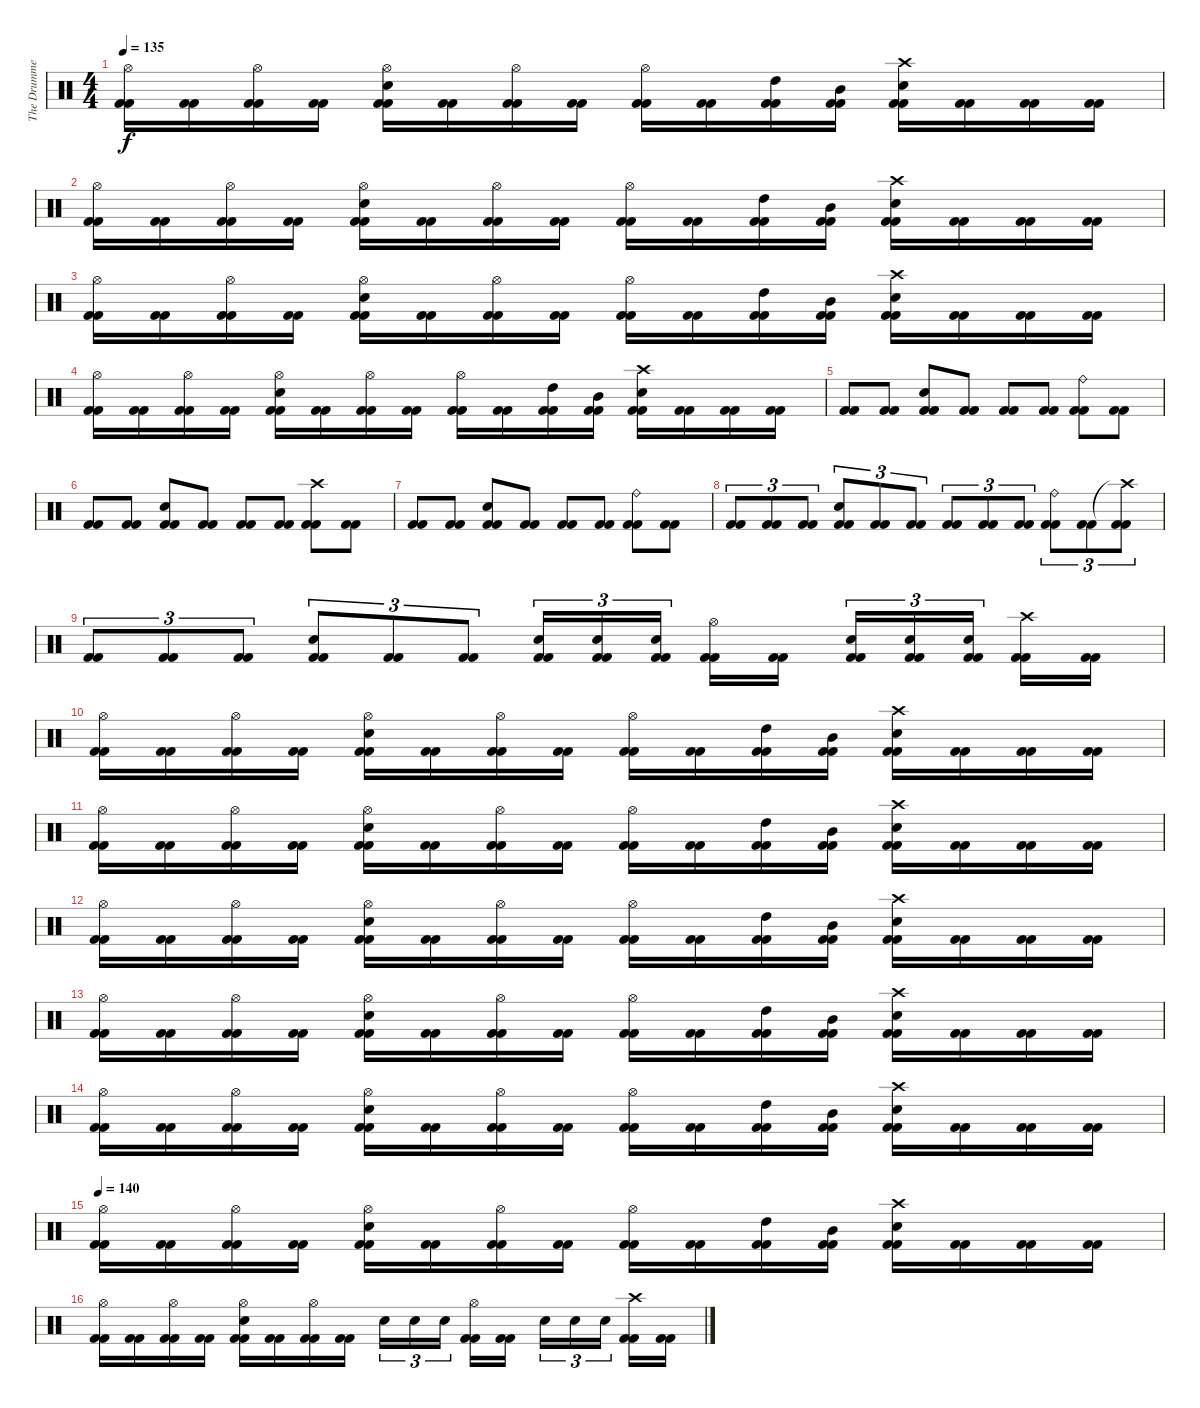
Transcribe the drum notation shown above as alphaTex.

\track ("The Drummer" "The Drumme") {instrument percussion}
\staff {score}
\articulation defaults
\ts (4 4)
\tempo 135
\clef neutral
\ks c
("Hi-Hat (open)" "Kick (hit) 2" "Kick (hit) 2").16{dy f} ("Kick (hit) 2" "Kick (hit) 2").16 ("Hi-Hat (open)" "Kick (hit) 2" "Kick (hit) 2").16 ("Kick (hit) 2" "Kick (hit) 2").16 ("Hi-Hat (open)" "Electric Snare (hit)" "Kick (hit) 2" "Kick (hit) 2").16 ("Kick (hit) 2" "Kick (hit) 2").16 ("Hi-Hat (open)" "Kick (hit) 2" "Kick (hit) 2").16 ("Kick (hit) 2" "Kick (hit) 2").16 ("Hi-Hat (open)" "Kick (hit) 2" "Kick (hit) 2").16 ("Kick (hit) 2" "Kick (hit) 2").16 ("High Tom (hit)" "Kick (hit) 2" "Kick (hit) 2").16 ("Mid Tom (hit)" "Kick (hit) 2" "Kick (hit) 2").16 ("Crash high (hit)" "Electric Snare (hit)" "Kick (hit) 2" "Kick (hit) 2").16 ("Kick (hit) 2" "Kick (hit) 2").16 ("Kick (hit) 2" "Kick (hit) 2").16 ("Kick (hit) 2" "Kick (hit) 2").16 |
("Hi-Hat (open)" "Kick (hit) 2" "Kick (hit) 2").16 ("Kick (hit) 2" "Kick (hit) 2").16 ("Hi-Hat (open)" "Kick (hit) 2" "Kick (hit) 2").16 ("Kick (hit) 2" "Kick (hit) 2").16 ("Hi-Hat (open)" "Electric Snare (hit)" "Kick (hit) 2" "Kick (hit) 2").16 ("Kick (hit) 2" "Kick (hit) 2").16 ("Hi-Hat (open)" "Kick (hit) 2" "Kick (hit) 2").16 ("Kick (hit) 2" "Kick (hit) 2").16 ("Hi-Hat (open)" "Kick (hit) 2" "Kick (hit) 2").16 ("Kick (hit) 2" "Kick (hit) 2").16 ("High Tom (hit)" "Kick (hit) 2" "Kick (hit) 2").16 ("Mid Tom (hit)" "Kick (hit) 2" "Kick (hit) 2").16 ("Crash high (hit)" "Electric Snare (hit)" "Kick (hit) 2" "Kick (hit) 2").16 ("Kick (hit) 2" "Kick (hit) 2").16 ("Kick (hit) 2" "Kick (hit) 2").16 ("Kick (hit) 2" "Kick (hit) 2").16 |
("Hi-Hat (open)" "Kick (hit) 2" "Kick (hit) 2").16 ("Kick (hit) 2" "Kick (hit) 2").16 ("Hi-Hat (open)" "Kick (hit) 2" "Kick (hit) 2").16 ("Kick (hit) 2" "Kick (hit) 2").16 ("Hi-Hat (open)" "Electric Snare (hit)" "Kick (hit) 2" "Kick (hit) 2").16 ("Kick (hit) 2" "Kick (hit) 2").16 ("Hi-Hat (open)" "Kick (hit) 2" "Kick (hit) 2").16 ("Kick (hit) 2" "Kick (hit) 2").16 ("Hi-Hat (open)" "Kick (hit) 2" "Kick (hit) 2").16 ("Kick (hit) 2" "Kick (hit) 2").16 ("High Tom (hit)" "Kick (hit) 2" "Kick (hit) 2").16 ("Mid Tom (hit)" "Kick (hit) 2" "Kick (hit) 2").16 ("Crash high (hit)" "Electric Snare (hit)" "Kick (hit) 2" "Kick (hit) 2").16 ("Kick (hit) 2" "Kick (hit) 2").16 ("Kick (hit) 2" "Kick (hit) 2").16 ("Kick (hit) 2" "Kick (hit) 2").16 |
("Hi-Hat (open)" "Kick (hit) 2" "Kick (hit) 2").16 ("Kick (hit) 2" "Kick (hit) 2").16 ("Hi-Hat (open)" "Kick (hit) 2" "Kick (hit) 2").16 ("Kick (hit) 2" "Kick (hit) 2").16 ("Hi-Hat (open)" "Electric Snare (hit)" "Kick (hit) 2" "Kick (hit) 2").16 ("Kick (hit) 2" "Kick (hit) 2").16 ("Hi-Hat (open)" "Kick (hit) 2" "Kick (hit) 2").16 ("Kick (hit) 2" "Kick (hit) 2").16 ("Hi-Hat (open)" "Kick (hit) 2" "Kick (hit) 2").16 ("Kick (hit) 2" "Kick (hit) 2").16 ("High Tom (hit)" "Kick (hit) 2" "Kick (hit) 2").16 ("Mid Tom (hit)" "Kick (hit) 2" "Kick (hit) 2").16 ("Crash high (hit)" "Electric Snare (hit)" "Kick (hit) 2" "Kick (hit) 2").16 ("Kick (hit) 2" "Kick (hit) 2").16 ("Kick (hit) 2" "Kick (hit) 2").16 ("Kick (hit) 2" "Kick (hit) 2").16 |
("Kick (hit) 2" "Kick (hit) 2").8 ("Kick (hit) 2" "Kick (hit) 2").8 ("Electric Snare (hit)" "Kick (hit) 2" "Kick (hit) 2").8 ("Kick (hit) 2" "Kick (hit) 2").8 ("Kick (hit) 2" "Kick (hit) 2").8 ("Kick (hit) 2" "Kick (hit) 2").8 ("Ride (bell)" "Kick (hit) 2" "Kick (hit) 2").8 ("Kick (hit) 2" "Kick (hit) 2").8 |
("Kick (hit) 2" "Kick (hit) 2").8 ("Kick (hit) 2" "Kick (hit) 2").8 ("Electric Snare (hit)" "Kick (hit) 2" "Kick (hit) 2").8 ("Kick (hit) 2" "Kick (hit) 2").8 ("Kick (hit) 2" "Kick (hit) 2").8 ("Kick (hit) 2" "Kick (hit) 2").8 ("Crash high (hit)" "Kick (hit) 2" "Kick (hit) 2").8 ("Kick (hit) 2" "Kick (hit) 2").8 |
("Kick (hit) 2" "Kick (hit) 2").8 ("Kick (hit) 2" "Kick (hit) 2").8 ("Electric Snare (hit)" "Kick (hit) 2" "Kick (hit) 2").8 ("Kick (hit) 2" "Kick (hit) 2").8 ("Kick (hit) 2" "Kick (hit) 2").8 ("Kick (hit) 2" "Kick (hit) 2").8 ("Ride (bell)" "Kick (hit) 2" "Kick (hit) 2").8 ("Kick (hit) 2" "Kick (hit) 2").8 |
("Kick (hit) 2" "Kick (hit) 2").8{tu (3 2)} ("Kick (hit) 2" "Kick (hit) 2").8{tu (3 2)} ("Kick (hit) 2" "Kick (hit) 2").8{tu (3 2)} ("Electric Snare (hit)" "Kick (hit) 2" "Kick (hit) 2").8{tu (3 2)} ("Kick (hit) 2" "Kick (hit) 2").8{tu (3 2)} ("Kick (hit) 2" "Kick (hit) 2").8{tu (3 2)} ("Kick (hit) 2" "Kick (hit) 2").8{tu (3 2)} ("Kick (hit) 2" "Kick (hit) 2").8{tu (3 2)} ("Kick (hit) 2" "Kick (hit) 2").8{tu (3 2)} ("Ride (bell)" "Kick (hit) 2" "Kick (hit) 2").8{tu (3 2)} ("Kick (hit) 2" "Kick (hit) 2").8{tu (3 2)} ("Crash high (hit)"{t} "Kick (hit) 2" "Kick (hit) 2").8{tu (3 2)} |
("Kick (hit) 2" "Kick (hit) 2").8{tu (3 2)} ("Kick (hit) 2" "Kick (hit) 2").8{tu (3 2)} ("Kick (hit) 2" "Kick (hit) 2").8{tu (3 2)} ("Electric Snare (hit)" "Kick (hit) 2" "Kick (hit) 2").8{tu (3 2)} ("Kick (hit) 2" "Kick (hit) 2").8{tu (3 2)} ("Kick (hit) 2" "Kick (hit) 2").8{tu (3 2)} ("Electric Snare (hit)" "Kick (hit) 2" "Kick (hit) 2").16{tu (3 2)} ("Electric Snare (hit)" "Kick (hit) 2" "Kick (hit) 2").16{tu (3 2)} ("Electric Snare (hit)" "Kick (hit) 2" "Kick (hit) 2").16{tu (3 2)} ("Hi-Hat (open)" "Kick (hit) 2" "Kick (hit) 2").16 ("Kick (hit) 2" "Kick (hit) 2").16 ("Electric Snare (hit)" "Kick (hit) 2" "Kick (hit) 2").16{tu (3 2)} ("Electric Snare (hit)" "Kick (hit) 2" "Kick (hit) 2").16{tu (3 2)} ("Electric Snare (hit)" "Kick (hit) 2" "Kick (hit) 2").16{tu (3 2)} ("Crash high (hit)" "Kick (hit) 2" "Kick (hit) 2").16 ("Kick (hit) 2" "Kick (hit) 2").16 |
("Hi-Hat (open)" "Kick (hit) 2" "Kick (hit) 2").16 ("Kick (hit) 2" "Kick (hit) 2").16 ("Hi-Hat (open)" "Kick (hit) 2" "Kick (hit) 2").16 ("Kick (hit) 2" "Kick (hit) 2").16 ("Hi-Hat (open)" "Electric Snare (hit)" "Kick (hit) 2" "Kick (hit) 2").16 ("Kick (hit) 2" "Kick (hit) 2").16 ("Hi-Hat (open)" "Kick (hit) 2" "Kick (hit) 2").16 ("Kick (hit) 2" "Kick (hit) 2").16 ("Hi-Hat (open)" "Kick (hit) 2" "Kick (hit) 2").16 ("Kick (hit) 2" "Kick (hit) 2").16 ("High Tom (hit)" "Kick (hit) 2" "Kick (hit) 2").16 ("Mid Tom (hit)" "Kick (hit) 2" "Kick (hit) 2").16 ("Crash high (hit)" "Electric Snare (hit)" "Kick (hit) 2" "Kick (hit) 2").16 ("Kick (hit) 2" "Kick (hit) 2").16 ("Kick (hit) 2" "Kick (hit) 2").16 ("Kick (hit) 2" "Kick (hit) 2").16 |
("Hi-Hat (open)" "Kick (hit) 2" "Kick (hit) 2").16 ("Kick (hit) 2" "Kick (hit) 2").16 ("Hi-Hat (open)" "Kick (hit) 2" "Kick (hit) 2").16 ("Kick (hit) 2" "Kick (hit) 2").16 ("Hi-Hat (open)" "Electric Snare (hit)" "Kick (hit) 2" "Kick (hit) 2").16 ("Kick (hit) 2" "Kick (hit) 2").16 ("Hi-Hat (open)" "Kick (hit) 2" "Kick (hit) 2").16 ("Kick (hit) 2" "Kick (hit) 2").16 ("Hi-Hat (open)" "Kick (hit) 2" "Kick (hit) 2").16 ("Kick (hit) 2" "Kick (hit) 2").16 ("High Tom (hit)" "Kick (hit) 2" "Kick (hit) 2").16 ("Mid Tom (hit)" "Kick (hit) 2" "Kick (hit) 2").16 ("Crash high (hit)" "Electric Snare (hit)" "Kick (hit) 2" "Kick (hit) 2").16 ("Kick (hit) 2" "Kick (hit) 2").16 ("Kick (hit) 2" "Kick (hit) 2").16 ("Kick (hit) 2" "Kick (hit) 2").16 |
("Hi-Hat (open)" "Kick (hit) 2" "Kick (hit) 2").16 ("Kick (hit) 2" "Kick (hit) 2").16 ("Hi-Hat (open)" "Kick (hit) 2" "Kick (hit) 2").16 ("Kick (hit) 2" "Kick (hit) 2").16 ("Hi-Hat (open)" "Electric Snare (hit)" "Kick (hit) 2" "Kick (hit) 2").16 ("Kick (hit) 2" "Kick (hit) 2").16 ("Hi-Hat (open)" "Kick (hit) 2" "Kick (hit) 2").16 ("Kick (hit) 2" "Kick (hit) 2").16 ("Hi-Hat (open)" "Kick (hit) 2" "Kick (hit) 2").16 ("Kick (hit) 2" "Kick (hit) 2").16 ("High Tom (hit)" "Kick (hit) 2" "Kick (hit) 2").16 ("Mid Tom (hit)" "Kick (hit) 2" "Kick (hit) 2").16 ("Crash high (hit)" "Electric Snare (hit)" "Kick (hit) 2" "Kick (hit) 2").16 ("Kick (hit) 2" "Kick (hit) 2").16 ("Kick (hit) 2" "Kick (hit) 2").16 ("Kick (hit) 2" "Kick (hit) 2").16 |
("Hi-Hat (open)" "Kick (hit) 2" "Kick (hit) 2").16 ("Kick (hit) 2" "Kick (hit) 2").16 ("Hi-Hat (open)" "Kick (hit) 2" "Kick (hit) 2").16 ("Kick (hit) 2" "Kick (hit) 2").16 ("Hi-Hat (open)" "Electric Snare (hit)" "Kick (hit) 2" "Kick (hit) 2").16 ("Kick (hit) 2" "Kick (hit) 2").16 ("Hi-Hat (open)" "Kick (hit) 2" "Kick (hit) 2").16 ("Kick (hit) 2" "Kick (hit) 2").16 ("Hi-Hat (open)" "Kick (hit) 2" "Kick (hit) 2").16 ("Kick (hit) 2" "Kick (hit) 2").16 ("High Tom (hit)" "Kick (hit) 2" "Kick (hit) 2").16 ("Mid Tom (hit)" "Kick (hit) 2" "Kick (hit) 2").16 ("Crash high (hit)" "Electric Snare (hit)" "Kick (hit) 2" "Kick (hit) 2").16 ("Kick (hit) 2" "Kick (hit) 2").16 ("Kick (hit) 2" "Kick (hit) 2").16 ("Kick (hit) 2" "Kick (hit) 2").16 |
("Hi-Hat (open)" "Kick (hit) 2" "Kick (hit) 2").16 ("Kick (hit) 2" "Kick (hit) 2").16 ("Hi-Hat (open)" "Kick (hit) 2" "Kick (hit) 2").16 ("Kick (hit) 2" "Kick (hit) 2").16 ("Hi-Hat (open)" "Electric Snare (hit)" "Kick (hit) 2" "Kick (hit) 2").16 ("Kick (hit) 2" "Kick (hit) 2").16 ("Hi-Hat (open)" "Kick (hit) 2" "Kick (hit) 2").16 ("Kick (hit) 2" "Kick (hit) 2").16 ("Hi-Hat (open)" "Kick (hit) 2" "Kick (hit) 2").16 ("Kick (hit) 2" "Kick (hit) 2").16 ("High Tom (hit)" "Kick (hit) 2" "Kick (hit) 2").16 ("Mid Tom (hit)" "Kick (hit) 2" "Kick (hit) 2").16 ("Crash high (hit)" "Electric Snare (hit)" "Kick (hit) 2" "Kick (hit) 2").16 ("Kick (hit) 2" "Kick (hit) 2").16 ("Kick (hit) 2" "Kick (hit) 2").16 ("Kick (hit) 2" "Kick (hit) 2").16 |
\tempo 140
("Hi-Hat (open)" "Kick (hit) 2" "Kick (hit) 2").16 ("Kick (hit) 2" "Kick (hit) 2").16 ("Hi-Hat (open)" "Kick (hit) 2" "Kick (hit) 2").16 ("Kick (hit) 2" "Kick (hit) 2").16 ("Hi-Hat (open)" "Electric Snare (hit)" "Kick (hit) 2" "Kick (hit) 2").16 ("Kick (hit) 2" "Kick (hit) 2").16 ("Hi-Hat (open)" "Kick (hit) 2" "Kick (hit) 2").16 ("Kick (hit) 2" "Kick (hit) 2").16 ("Hi-Hat (open)" "Kick (hit) 2" "Kick (hit) 2").16 ("Kick (hit) 2" "Kick (hit) 2").16 ("High Tom (hit)" "Kick (hit) 2" "Kick (hit) 2").16 ("Mid Tom (hit)" "Kick (hit) 2" "Kick (hit) 2").16 ("Crash high (hit)" "Electric Snare (hit)" "Kick (hit) 2" "Kick (hit) 2").16 ("Kick (hit) 2" "Kick (hit) 2").16 ("Kick (hit) 2" "Kick (hit) 2").16 ("Kick (hit) 2" "Kick (hit) 2").16 |
("Hi-Hat (open)" "Kick (hit) 2" "Kick (hit) 2").16 ("Kick (hit) 2" "Kick (hit) 2").16 ("Hi-Hat (open)" "Kick (hit) 2" "Kick (hit) 2").16 ("Kick (hit) 2" "Kick (hit) 2").16 ("Hi-Hat (open)" "Electric Snare (hit)" "Kick (hit) 2" "Kick (hit) 2").16 ("Kick (hit) 2" "Kick (hit) 2").16 ("Hi-Hat (open)" "Kick (hit) 2" "Kick (hit) 2").16 ("Kick (hit) 2" "Kick (hit) 2").16 "Electric Snare (hit)".16{tu (3 2)} "Electric Snare (hit)".16{tu (3 2)} "Electric Snare (hit)".16{tu (3 2)} ("Hi-Hat (open)" "Kick (hit) 2" "Kick (hit) 2").16 ("Kick (hit) 2" "Kick (hit) 2").16 "Electric Snare (hit)".16{tu (3 2)} "Electric Snare (hit)".16{tu (3 2)} "Electric Snare (hit)".16{tu (3 2)} ("Crash high (hit)" "Kick (hit) 2" "Kick (hit) 2").16 ("Kick (hit) 2" "Kick (hit) 2").16
